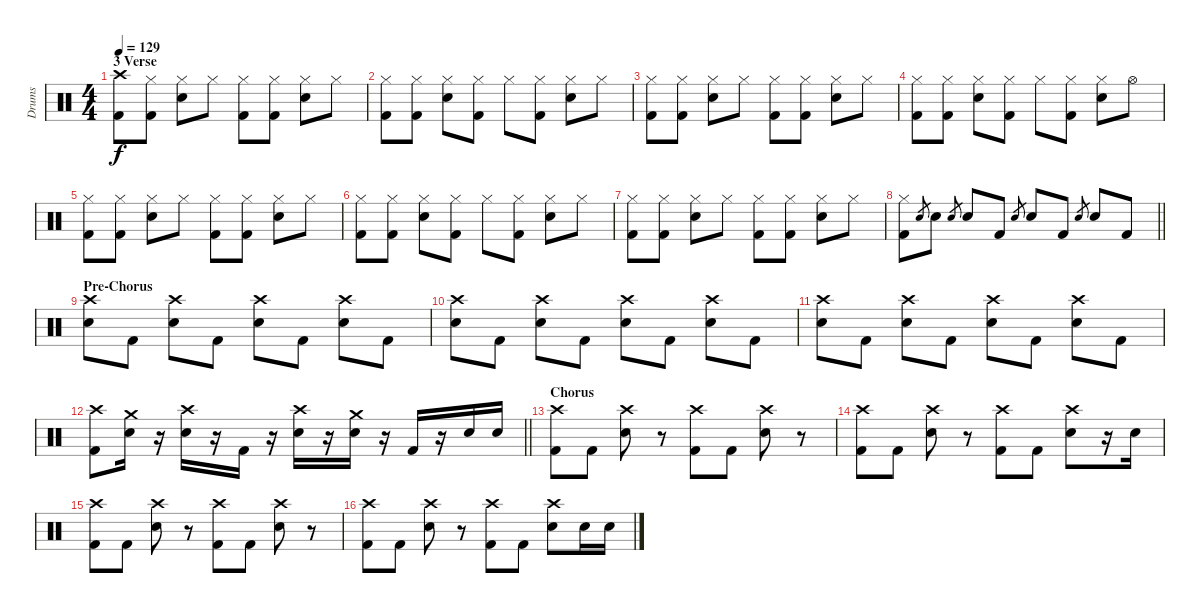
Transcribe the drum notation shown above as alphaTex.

\track ("Drums" "Drums") {instrument percussion}
\staff {score}
\articulation defaults
\ts (4 4)
\section ("" "3 Verse")
\tempo 129
\clef neutral
\ks c
("Crash high (hit)" "Kick (hit) 2").8{dy f} ("Hi-Hat (closed)" "Kick (hit) 2").8 ("Hi-Hat (closed)" "Electric Snare (hit)").8 "Hi-Hat (closed)".8 ("Hi-Hat (closed)" "Kick (hit) 2").8 ("Hi-Hat (closed)" "Kick (hit) 2").8 ("Hi-Hat (closed)" "Electric Snare (hit)").8 "Hi-Hat (closed)".8 |
("Hi-Hat (closed)" "Kick (hit) 2").8 ("Hi-Hat (closed)" "Kick (hit) 2").8 ("Hi-Hat (closed)" "Electric Snare (hit)").8 ("Hi-Hat (closed)" "Kick (hit) 2").8 "Hi-Hat (closed)".8 ("Hi-Hat (closed)" "Kick (hit) 2").8 ("Hi-Hat (closed)" "Electric Snare (hit)").8 "Hi-Hat (closed)".8 |
("Hi-Hat (closed)" "Kick (hit) 2").8 ("Hi-Hat (closed)" "Kick (hit) 2").8 ("Hi-Hat (closed)" "Electric Snare (hit)").8 "Hi-Hat (closed)".8 ("Hi-Hat (closed)" "Kick (hit) 2").8 ("Hi-Hat (closed)" "Kick (hit) 2").8 ("Hi-Hat (closed)" "Electric Snare (hit)").8 "Hi-Hat (closed)".8 |
("Hi-Hat (closed)" "Kick (hit) 2").8 ("Hi-Hat (closed)" "Kick (hit) 2").8 ("Hi-Hat (closed)" "Electric Snare (hit)").8 ("Hi-Hat (closed)" "Kick (hit) 2").8 "Hi-Hat (closed)".8 ("Hi-Hat (closed)" "Kick (hit) 2").8 ("Hi-Hat (closed)" "Electric Snare (hit)").8 "Hi-Hat (open)".8 |
("Hi-Hat (closed)" "Kick (hit) 2").8 ("Hi-Hat (closed)" "Kick (hit) 2").8 ("Hi-Hat (closed)" "Electric Snare (hit)").8 "Hi-Hat (closed)".8 ("Hi-Hat (closed)" "Kick (hit) 2").8 ("Hi-Hat (closed)" "Kick (hit) 2").8 ("Hi-Hat (closed)" "Electric Snare (hit)").8 "Hi-Hat (closed)".8 |
("Hi-Hat (closed)" "Kick (hit) 2").8 ("Hi-Hat (closed)" "Kick (hit) 2").8 ("Hi-Hat (closed)" "Electric Snare (hit)").8 ("Hi-Hat (closed)" "Kick (hit) 2").8 "Hi-Hat (closed)".8 ("Hi-Hat (closed)" "Kick (hit) 2").8 ("Hi-Hat (closed)" "Electric Snare (hit)").8 "Hi-Hat (closed)".8 |
("Hi-Hat (closed)" "Kick (hit) 2").8 ("Hi-Hat (closed)" "Kick (hit) 2").8 ("Hi-Hat (closed)" "Electric Snare (hit)").8 "Hi-Hat (closed)".8 ("Hi-Hat (closed)" "Kick (hit) 2").8 ("Hi-Hat (closed)" "Kick (hit) 2").8 ("Hi-Hat (closed)" "Electric Snare (hit)").8 "Hi-Hat (closed)".8 |
\barLineRight lightlight
("Hi-Hat (closed)" "Kick (hit) 2").8 "Electric Snare (hit)".8{gr} "Electric Snare (hit)".8 "Electric Snare (hit)".8{gr} "Electric Snare (hit)".8 "Kick (hit) 2".8 "Electric Snare (hit)".8{gr} "Electric Snare (hit)".8 "Kick (hit) 2".8 "Electric Snare (hit)".8{gr} "Electric Snare (hit)".8 "Kick (hit) 2".8 |
\section ("" "Pre-Chorus")
("Crash high (hit)" "Electric Snare (hit)").8 "Kick (hit) 2".8 ("Crash high (hit)" "Electric Snare (hit)").8 "Kick (hit) 2".8 ("Crash high (hit)" "Electric Snare (hit)").8 "Kick (hit) 2".8 ("Crash high (hit)" "Electric Snare (hit)").8 "Kick (hit) 2".8 |
("Crash high (hit)" "Electric Snare (hit)").8 "Kick (hit) 2".8 ("Crash high (hit)" "Electric Snare (hit)").8 "Kick (hit) 2".8 ("Crash high (hit)" "Electric Snare (hit)").8 "Kick (hit) 2".8 ("Crash high (hit)" "Electric Snare (hit)").8 "Kick (hit) 2".8 |
("Crash high (hit)" "Electric Snare (hit)").8 "Kick (hit) 2".8 ("Crash high (hit)" "Electric Snare (hit)").8 "Kick (hit) 2".8 ("Crash high (hit)" "Electric Snare (hit)").8 "Kick (hit) 2".8 ("Crash high (hit)" "Electric Snare (hit)").8 "Kick (hit) 2".8 |
\barLineRight lightlight
("Crash high (hit)" "Kick (hit) 2").8 ("Crash medium (hit)" "Electric Snare (hit)").16 r.16 ("Crash high (hit)" "Electric Snare (hit)").16 r.16 "Kick (hit) 2".16 r.16 ("Crash high (hit)" "Electric Snare (hit)").16 r.16 ("Crash medium (hit)" "Electric Snare (hit)").16 r.16 "Kick (hit) 2".16 r.16 "Electric Snare (hit)".16 "Electric Snare (hit)".16 |
\section ("" "Chorus")
("Crash high (hit)" "Kick (hit) 2").8 "Kick (hit) 2".8 ("Crash high (hit)" "Electric Snare (hit)").8 r.8 ("Crash high (hit)" "Kick (hit) 2").8 "Kick (hit) 2".8 ("Crash high (hit)" "Electric Snare (hit)").8 r.8 |
("Crash high (hit)" "Kick (hit) 2").8 "Kick (hit) 2".8 ("Crash high (hit)" "Electric Snare (hit)").8 r.8 ("Crash high (hit)" "Kick (hit) 2").8 "Kick (hit) 2".8 ("Crash high (hit)" "Electric Snare (hit)").8 r.16 "Electric Snare (hit)".16 |
("Crash high (hit)" "Kick (hit) 2").8 "Kick (hit) 2".8 ("Crash high (hit)" "Electric Snare (hit)").8 r.8 ("Crash high (hit)" "Kick (hit) 2").8 "Kick (hit) 2".8 ("Crash high (hit)" "Electric Snare (hit)").8 r.8 |
("Crash high (hit)" "Kick (hit) 2").8 "Kick (hit) 2".8 ("Crash high (hit)" "Electric Snare (hit)").8 r.8 ("Crash high (hit)" "Kick (hit) 2").8 "Kick (hit) 2".8 ("Crash high (hit)" "Electric Snare (hit)").8 "Electric Snare (hit)".16 "Electric Snare (hit)".16
